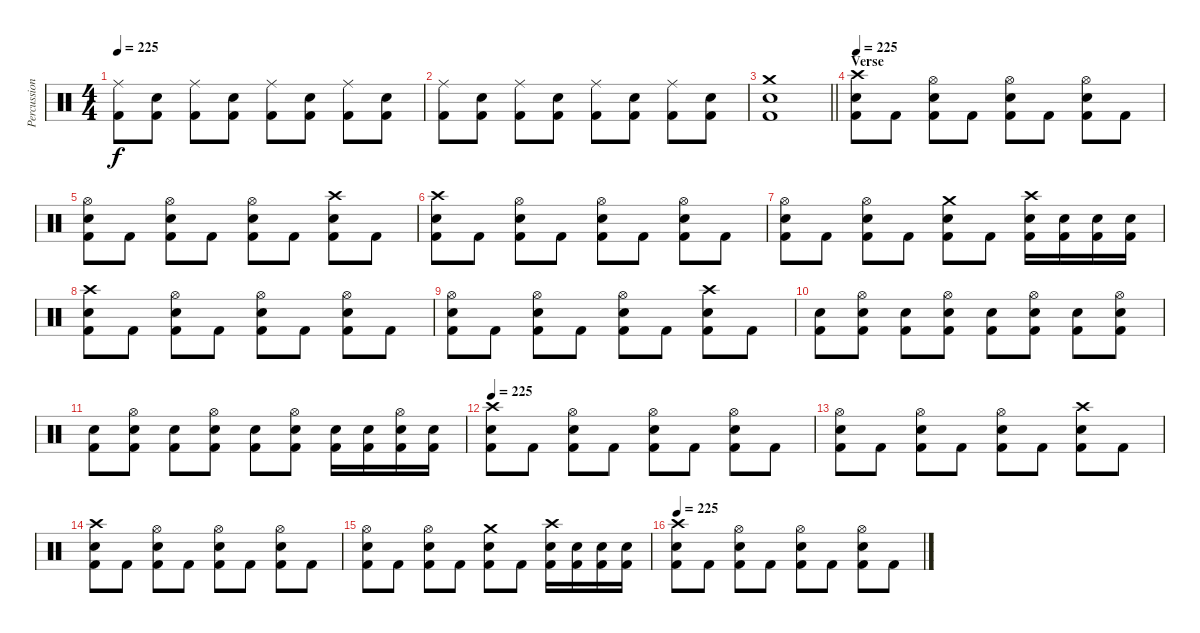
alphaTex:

\track ("Percussion" "Percussion") {instrument percussion}
\staff {score}
\articulation defaults
\ts (4 4)
\tempo 225
\clef neutral
\ks c
("Ride (middle)" "Kick (hit) 2").8{dy f} ("Electric Snare (hit)" "Kick (hit) 2").8 ("Ride (middle)" "Kick (hit) 2").8 ("Electric Snare (hit)" "Kick (hit) 2").8 ("Ride (middle)" "Kick (hit) 2").8 ("Electric Snare (hit)" "Kick (hit) 2").8 ("Ride (middle)" "Kick (hit) 2").8 ("Electric Snare (hit)" "Kick (hit) 2").8 |
("Ride (middle)" "Kick (hit) 2").8 ("Electric Snare (hit)" "Kick (hit) 2").8 ("Ride (middle)" "Kick (hit) 2").8 ("Electric Snare (hit)" "Kick (hit) 2").8 ("Ride (middle)" "Kick (hit) 2").8 ("Electric Snare (hit)" "Kick (hit) 2").8 ("Ride (middle)" "Kick (hit) 2").8 ("Electric Snare (hit)" "Kick (hit) 2").8 |
\barLineRight lightlight
("Crash medium (hit)" "Electric Snare (hit)" "Kick (hit) 2").1 |
\section ("" "Verse")
\tempo 225
("Crash high (hit)" "Electric Snare (hit)" "Kick (hit) 2").8 "Kick (hit) 2".8 ("Hi-Hat (open)" "Electric Snare (hit)" "Kick (hit) 2").8 "Kick (hit) 2".8 ("Hi-Hat (open)" "Electric Snare (hit)" "Kick (hit) 2").8 "Kick (hit) 2".8 ("Hi-Hat (open)" "Electric Snare (hit)" "Kick (hit) 2").8 "Kick (hit) 2".8 |
("Hi-Hat (open)" "Electric Snare (hit)" "Kick (hit) 2").8 "Kick (hit) 2".8 ("Hi-Hat (open)" "Electric Snare (hit)" "Kick (hit) 2").8 "Kick (hit) 2".8 ("Hi-Hat (open)" "Electric Snare (hit)" "Kick (hit) 2").8 "Kick (hit) 2".8 ("Crash high (hit)" "Electric Snare (hit)" "Kick (hit) 2").8 "Kick (hit) 2".8 |
("Crash high (hit)" "Electric Snare (hit)" "Kick (hit) 2").8 "Kick (hit) 2".8 ("Hi-Hat (open)" "Electric Snare (hit)" "Kick (hit) 2").8 "Kick (hit) 2".8 ("Hi-Hat (open)" "Electric Snare (hit)" "Kick (hit) 2").8 "Kick (hit) 2".8 ("Hi-Hat (open)" "Electric Snare (hit)" "Kick (hit) 2").8 "Kick (hit) 2".8 |
("Hi-Hat (open)" "Electric Snare (hit)" "Kick (hit) 2").8 "Kick (hit) 2".8 ("Hi-Hat (open)" "Electric Snare (hit)" "Kick (hit) 2").8 "Kick (hit) 2".8 ("Crash medium (hit)" "Electric Snare (hit)" "Kick (hit) 2").8 "Kick (hit) 2".8 ("Crash high (hit)" "Electric Snare (hit)" "Kick (hit) 2").16 ("Electric Snare (hit)" "Kick (hit) 2").16 ("Electric Snare (hit)" "Kick (hit) 2").16 ("Electric Snare (hit)" "Kick (hit) 2").16 |
("Crash high (hit)" "Electric Snare (hit)" "Kick (hit) 2").8 "Kick (hit) 2".8 ("Hi-Hat (open)" "Electric Snare (hit)" "Kick (hit) 2").8 "Kick (hit) 2".8 ("Hi-Hat (open)" "Electric Snare (hit)" "Kick (hit) 2").8 "Kick (hit) 2".8 ("Hi-Hat (open)" "Electric Snare (hit)" "Kick (hit) 2").8 "Kick (hit) 2".8 |
("Hi-Hat (open)" "Electric Snare (hit)" "Kick (hit) 2").8 "Kick (hit) 2".8 ("Hi-Hat (open)" "Electric Snare (hit)" "Kick (hit) 2").8 "Kick (hit) 2".8 ("Hi-Hat (open)" "Electric Snare (hit)" "Kick (hit) 2").8 "Kick (hit) 2".8 ("Crash high (hit)" "Electric Snare (hit)" "Kick (hit) 2").8 "Kick (hit) 2".8 |
("Electric Snare (hit)" "Kick (hit) 2").8 ("Hi-Hat (open)" "Electric Snare (hit)" "Kick (hit) 2").8 ("Electric Snare (hit)" "Kick (hit) 2").8 ("Hi-Hat (open)" "Electric Snare (hit)" "Kick (hit) 2").8 ("Electric Snare (hit)" "Kick (hit) 2").8 ("Hi-Hat (open)" "Electric Snare (hit)" "Kick (hit) 2").8 ("Electric Snare (hit)" "Kick (hit) 2").8 ("Hi-Hat (open)" "Electric Snare (hit)" "Kick (hit) 2").8 |
("Electric Snare (hit)" "Kick (hit) 2").8 ("Hi-Hat (open)" "Electric Snare (hit)" "Kick (hit) 2").8 ("Electric Snare (hit)" "Kick (hit) 2").8 ("Hi-Hat (open)" "Electric Snare (hit)" "Kick (hit) 2").8 ("Electric Snare (hit)" "Kick (hit) 2").8 ("Hi-Hat (open)" "Electric Snare (hit)" "Kick (hit) 2").8 ("Electric Snare (hit)" "Kick (hit) 2").16 ("Electric Snare (hit)" "Kick (hit) 2").16 ("Hi-Hat (open)" "Electric Snare (hit)" "Kick (hit) 2").16 ("Electric Snare (hit)" "Kick (hit) 2").16 |
\tempo 225
("Crash high (hit)" "Electric Snare (hit)" "Kick (hit) 2").8 "Kick (hit) 2".8 ("Hi-Hat (open)" "Electric Snare (hit)" "Kick (hit) 2").8 "Kick (hit) 2".8 ("Hi-Hat (open)" "Electric Snare (hit)" "Kick (hit) 2").8 "Kick (hit) 2".8 ("Hi-Hat (open)" "Electric Snare (hit)" "Kick (hit) 2").8 "Kick (hit) 2".8 |
("Hi-Hat (open)" "Electric Snare (hit)" "Kick (hit) 2").8 "Kick (hit) 2".8 ("Hi-Hat (open)" "Electric Snare (hit)" "Kick (hit) 2").8 "Kick (hit) 2".8 ("Hi-Hat (open)" "Electric Snare (hit)" "Kick (hit) 2").8 "Kick (hit) 2".8 ("Crash high (hit)" "Electric Snare (hit)" "Kick (hit) 2").8 "Kick (hit) 2".8 |
("Crash high (hit)" "Electric Snare (hit)" "Kick (hit) 2").8 "Kick (hit) 2".8 ("Hi-Hat (open)" "Electric Snare (hit)" "Kick (hit) 2").8 "Kick (hit) 2".8 ("Hi-Hat (open)" "Electric Snare (hit)" "Kick (hit) 2").8 "Kick (hit) 2".8 ("Hi-Hat (open)" "Electric Snare (hit)" "Kick (hit) 2").8 "Kick (hit) 2".8 |
("Hi-Hat (open)" "Electric Snare (hit)" "Kick (hit) 2").8 "Kick (hit) 2".8 ("Hi-Hat (open)" "Electric Snare (hit)" "Kick (hit) 2").8 "Kick (hit) 2".8 ("Crash medium (hit)" "Electric Snare (hit)" "Kick (hit) 2").8 "Kick (hit) 2".8 ("Crash high (hit)" "Electric Snare (hit)" "Kick (hit) 2").16 ("Electric Snare (hit)" "Kick (hit) 2").16 ("Electric Snare (hit)" "Kick (hit) 2").16 ("Electric Snare (hit)" "Kick (hit) 2").16 |
\tempo 225
("Crash high (hit)" "Electric Snare (hit)" "Kick (hit) 2").8 "Kick (hit) 2".8 ("Hi-Hat (open)" "Electric Snare (hit)" "Kick (hit) 2").8 "Kick (hit) 2".8 ("Hi-Hat (open)" "Electric Snare (hit)" "Kick (hit) 2").8 "Kick (hit) 2".8 ("Hi-Hat (open)" "Electric Snare (hit)" "Kick (hit) 2").8 "Kick (hit) 2".8
